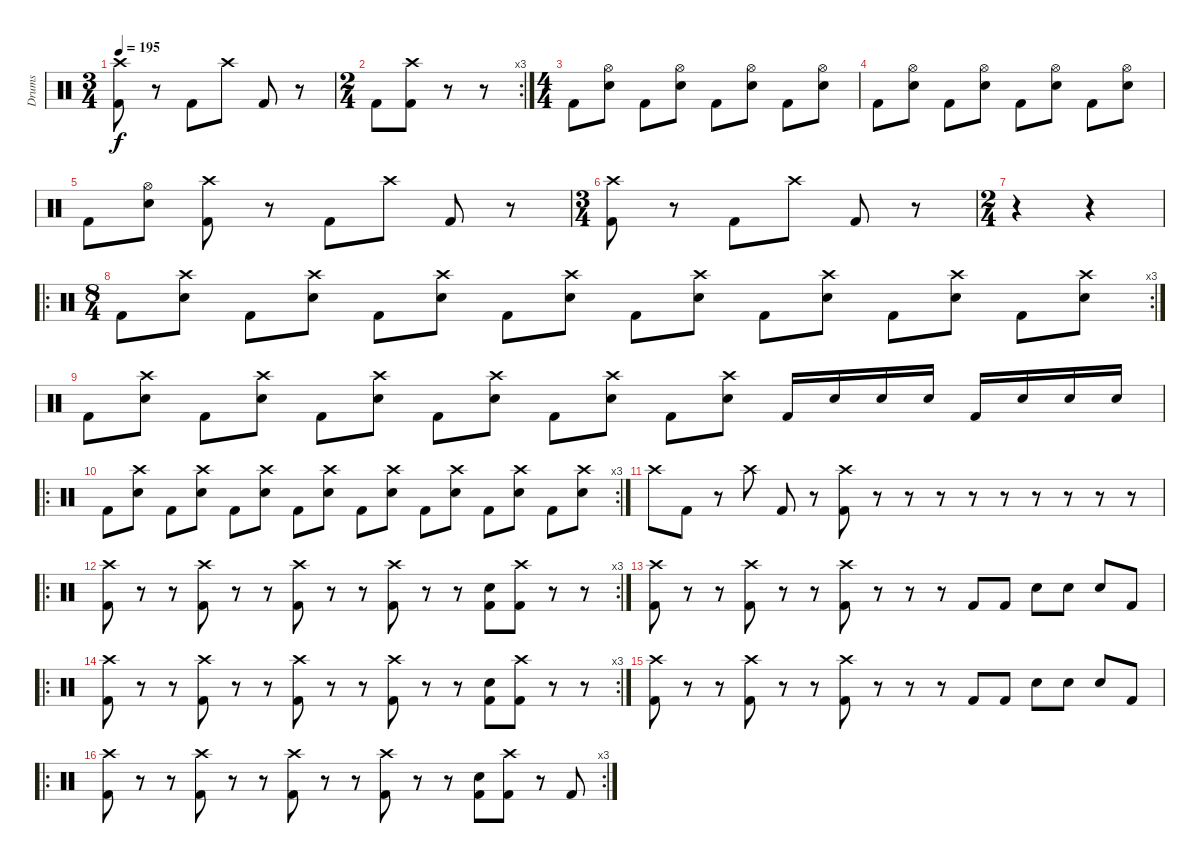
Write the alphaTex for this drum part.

\track ("Drums" "Drums") {instrument percussion}
\staff
\articulation defaults
\ts (3 4)
\tempo 195
\clef neutral
\ks c
("Crash high (hit)" "Kick (hit) 2").8{dy f} r.8 "Kick (hit) 2".8 "Crash high (hit)".8 "Kick (hit) 2".8 r.8 |
\rc 3
\ts (2 4)
"Kick (hit) 2".8 ("Crash high (hit)" "Kick (hit) 2").8 r.8 r.8 |
\ts (4 4)
"Kick (hit) 2".8 ("Hi-Hat (open)" "Electric Snare (hit)").8 "Kick (hit) 2".8 ("Hi-Hat (open)" "Electric Snare (hit)").8 "Kick (hit) 2".8 ("Hi-Hat (open)" "Electric Snare (hit)").8 "Kick (hit) 2".8 ("Hi-Hat (open)" "Electric Snare (hit)").8 |
"Kick (hit) 2".8 ("Hi-Hat (open)" "Electric Snare (hit)").8 "Kick (hit) 2".8 ("Hi-Hat (open)" "Electric Snare (hit)").8 "Kick (hit) 2".8 ("Hi-Hat (open)" "Electric Snare (hit)").8 "Kick (hit) 2".8 ("Hi-Hat (open)" "Electric Snare (hit)").8 |
"Kick (hit) 2".8 ("Hi-Hat (open)" "Electric Snare (hit)").8 ("Crash high (hit)" "Kick (hit) 2").8 r.8 "Kick (hit) 2".8 "Crash high (hit)".8 "Kick (hit) 2".8 r.8 |
\ts (3 4)
("Crash high (hit)" "Kick (hit) 2").8 r.8 "Kick (hit) 2".8 "Crash high (hit)".8 "Kick (hit) 2".8 r.8 |
\ts (2 4)
r.4 r.4 |
\ro
\rc 3
\ts (8 4)
"Kick (hit) 2".8 ("Electric Snare (hit)" "Crash high (hit)").8 "Kick (hit) 2".8 ("Electric Snare (hit)" "Crash high (hit)").8 "Kick (hit) 2".8 ("Electric Snare (hit)" "Crash high (hit)").8 "Kick (hit) 2".8 ("Electric Snare (hit)" "Crash high (hit)").8 "Kick (hit) 2".8 ("Electric Snare (hit)" "Crash high (hit)").8 "Kick (hit) 2".8 ("Electric Snare (hit)" "Crash high (hit)").8 "Kick (hit) 2".8 ("Electric Snare (hit)" "Crash high (hit)").8 "Kick (hit) 2".8 ("Electric Snare (hit)" "Crash high (hit)").8 |
"Kick (hit) 2".8 ("Electric Snare (hit)" "Crash high (hit)").8 "Kick (hit) 2".8 ("Electric Snare (hit)" "Crash high (hit)").8 "Kick (hit) 2".8 ("Electric Snare (hit)" "Crash high (hit)").8 "Kick (hit) 2".8 ("Electric Snare (hit)" "Crash high (hit)").8 "Kick (hit) 2".8 ("Electric Snare (hit)" "Crash high (hit)").8 "Kick (hit) 2".8 ("Electric Snare (hit)" "Crash high (hit)").8 "Kick (hit) 2".16 "Electric Snare (hit)".16 "Electric Snare (hit)".16 "Electric Snare (hit)".16 "Kick (hit) 2".16 "Electric Snare (hit)".16 "Electric Snare (hit)".16 "Electric Snare (hit)".16 |
\ro
\rc 3 "Kick (hit) 2".8
("Electric Snare (hit)" "Crash high (hit)").8 "Kick (hit) 2".8 ("Electric Snare (hit)" "Crash high (hit)").8 "Kick (hit) 2".8 ("Electric Snare (hit)" "Crash high (hit)").8 "Kick (hit) 2".8 ("Electric Snare (hit)" "Crash high (hit)").8 "Kick (hit) 2".8 ("Electric Snare (hit)" "Crash high (hit)").8 "Kick (hit) 2".8 ("Electric Snare (hit)" "Crash high (hit)").8 "Kick (hit) 2".8 ("Electric Snare (hit)" "Crash high (hit)").8 "Kick (hit) 2".8 ("Electric Snare (hit)" "Crash high (hit)").8 |
"Crash high (hit)".8 "Kick (hit) 2".8 r.8 "Crash high (hit)".8 "Kick (hit) 2".8 r.8 ("Crash high (hit)" "Kick (hit) 2").8 r.8 r.8 r.8 r.8 r.8 r.8 r.8 r.8 r.8 |
\ro
\rc 3
("Crash high (hit)" "Kick (hit) 2").8 r.8 r.8 ("Crash high (hit)" "Kick (hit) 2").8 r.8 r.8 ("Crash high (hit)" "Kick (hit) 2").8 r.8 r.8 ("Crash high (hit)" "Kick (hit) 2").8 r.8 r.8 ("Electric Snare (hit)" "Kick (hit) 2").8 ("Crash high (hit)" "Kick (hit) 2").8 r.8 r.8 |
("Crash high (hit)" "Kick (hit) 2").8 r.8 r.8 ("Crash high (hit)" "Kick (hit) 2").8 r.8 r.8 ("Crash high (hit)" "Kick (hit) 2").8 r.8 r.8 r.8 "Kick (hit) 2".8 "Kick (hit) 2".8 "Electric Snare (hit)".8 "Electric Snare (hit)".8 "Electric Snare (hit)".8 "Kick (hit) 2".8 |
\ro
\rc 3
("Crash high (hit)" "Kick (hit) 2").8 r.8 r.8 ("Crash high (hit)" "Kick (hit) 2").8 r.8 r.8 ("Crash high (hit)" "Kick (hit) 2").8 r.8 r.8 ("Crash high (hit)" "Kick (hit) 2").8 r.8 r.8 ("Electric Snare (hit)" "Kick (hit) 2").8 ("Crash high (hit)" "Kick (hit) 2").8 r.8 r.8 |
("Crash high (hit)" "Kick (hit) 2").8 r.8 r.8 ("Crash high (hit)" "Kick (hit) 2").8 r.8 r.8 ("Crash high (hit)" "Kick (hit) 2").8 r.8 r.8 r.8 "Kick (hit) 2".8 "Kick (hit) 2".8 "Electric Snare (hit)".8 "Electric Snare (hit)".8 "Electric Snare (hit)".8 "Kick (hit) 2".8 |
\ro
\rc 3
("Crash high (hit)" "Kick (hit) 2").8 r.8 r.8 ("Crash high (hit)" "Kick (hit) 2").8 r.8 r.8 ("Crash high (hit)" "Kick (hit) 2").8 r.8 r.8 ("Crash high (hit)" "Kick (hit) 2").8 r.8 r.8 ("Electric Snare (hit)" "Kick (hit) 2").8 ("Crash high (hit)" "Kick (hit) 2").8 r.8 "Kick (hit) 2".8
